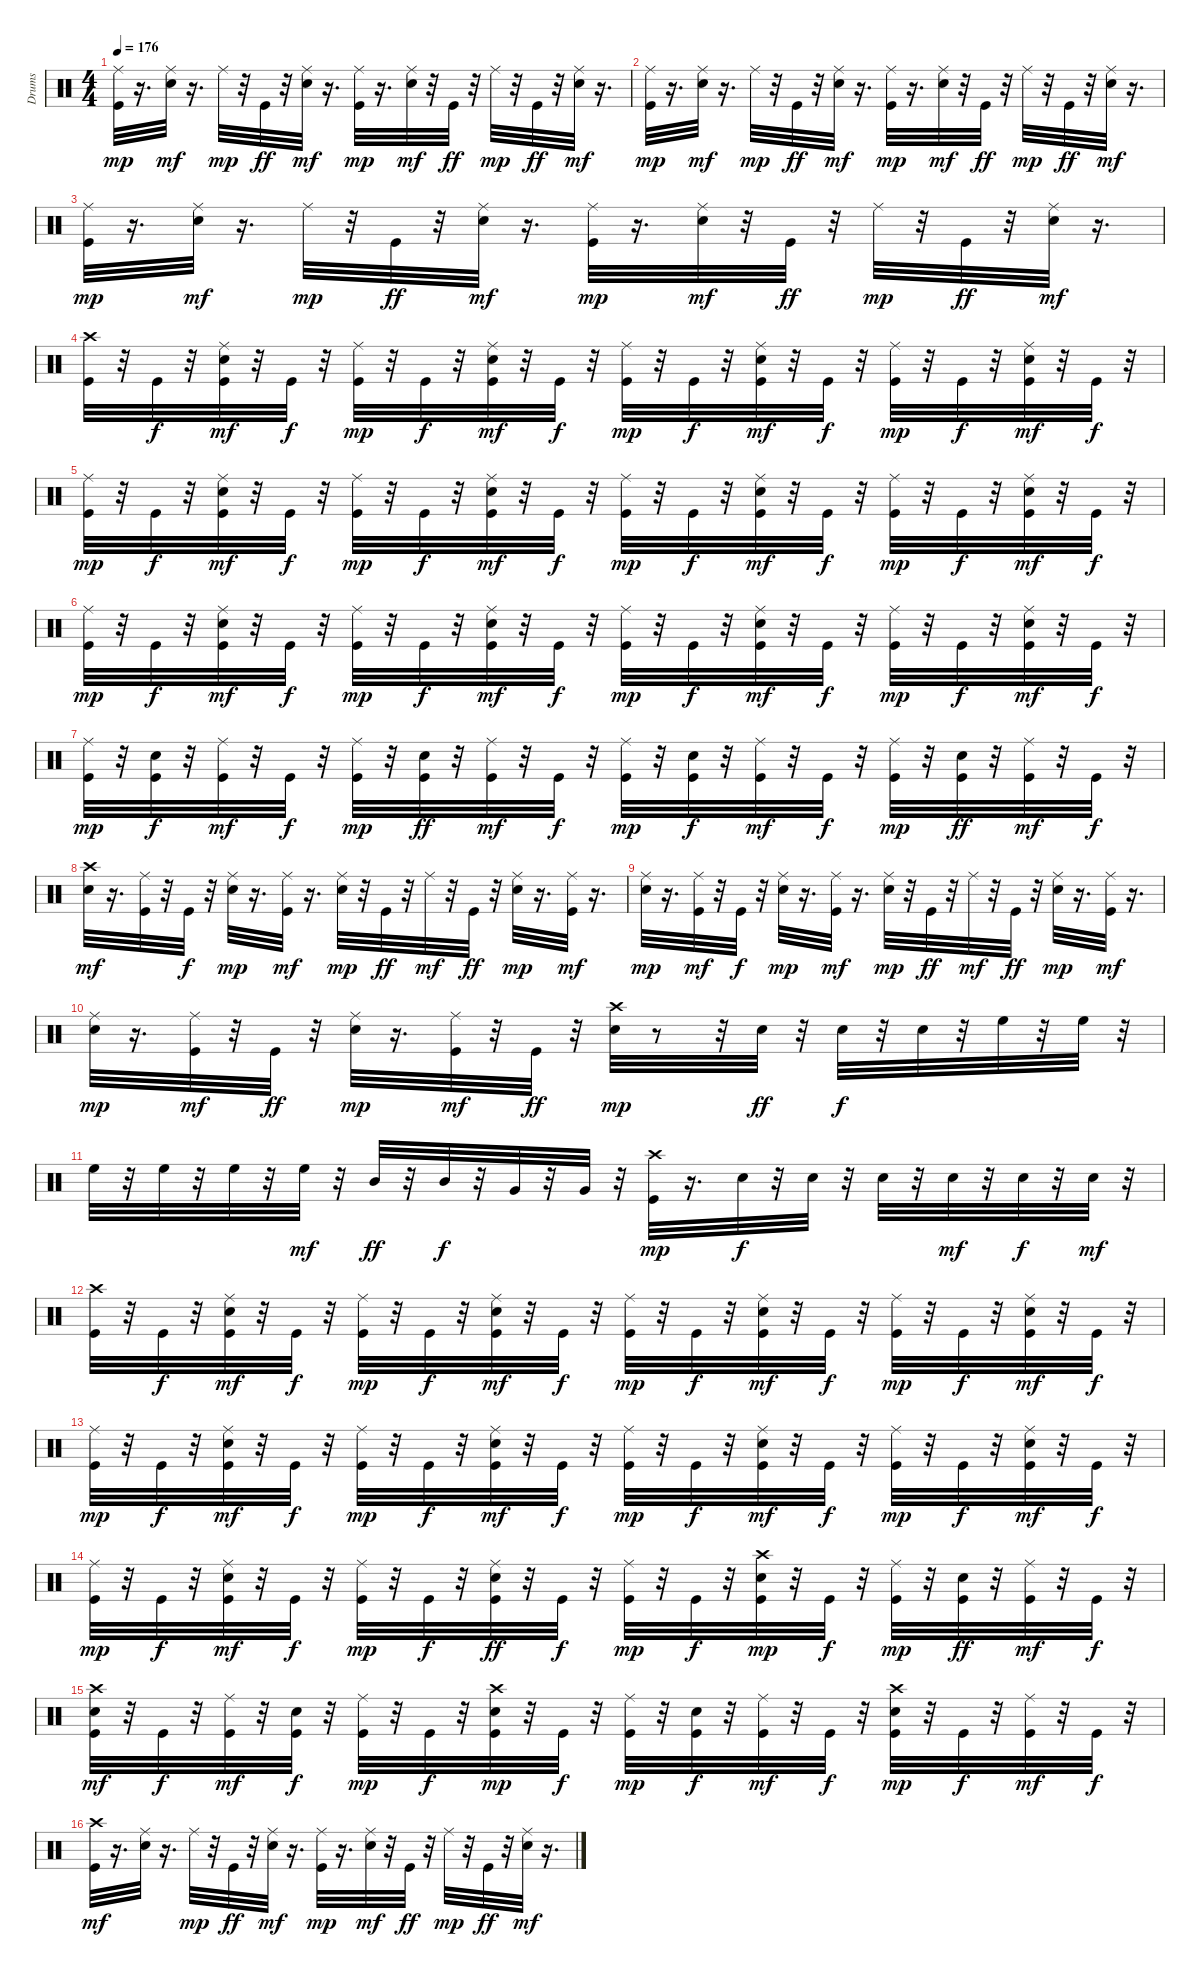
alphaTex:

\track ("Drums" "Drums") {instrument percussion}
\staff {score}
\articulation defaults
\ts (4 4)
\tempo 176
\clef neutral
\ks c
("Kick (hit)" "Ride (middle)").32{dy mp} r.16{d} ("Snare (hit) 2" "Ride (middle)").32{dy mf} r.16{d} "Ride (middle)".32{dy mp} r.32 "Kick (hit)".32{dy ff} r.32 ("Snare (hit) 2" "Ride (middle)").32{dy mf} r.16{d} ("Kick (hit)" "Ride (middle)").32{dy mp} r.16{d} ("Snare (hit) 2" "Ride (middle)").32{dy mf} r.32 "Kick (hit)".32{dy ff} r.32 "Ride (middle)".32{dy mp} r.32 "Kick (hit)".32{dy ff} r.32 ("Snare (hit) 2" "Ride (middle)").32{dy mf} r.16{d} |
("Kick (hit)" "Ride (middle)").32{dy mp} r.16{d} ("Snare (hit) 2" "Ride (middle)").32{dy mf} r.16{d} "Ride (middle)".32{dy mp} r.32 "Kick (hit)".32{dy ff} r.32 ("Snare (hit) 2" "Ride (middle)").32{dy mf} r.16{d} ("Kick (hit)" "Ride (middle)").32{dy mp} r.16{d} ("Snare (hit) 2" "Ride (middle)").32{dy mf} r.32 "Kick (hit)".32{dy ff} r.32 "Ride (middle)".32{dy mp} r.32 "Kick (hit)".32{dy ff} r.32 ("Snare (hit) 2" "Ride (middle)").32{dy mf} r.16{d} |
("Kick (hit)" "Ride (middle)").32{dy mp} r.16{d} ("Snare (hit) 2" "Ride (middle)").32{dy mf} r.16{d} "Ride (middle)".32{dy mp} r.32 "Kick (hit)".32{dy ff} r.32 ("Snare (hit) 2" "Ride (middle)").32{dy mf} r.16{d} ("Kick (hit)" "Ride (middle)").32{dy mp} r.16{d} ("Snare (hit) 2" "Ride (middle)").32{dy mf} r.32 "Kick (hit)".32{dy ff} r.32 "Ride (middle)".32{dy mp} r.32 "Kick (hit)".32{dy ff} r.32 ("Snare (hit) 2" "Ride (middle)").32{dy mf} r.16{d} |
("Kick (hit)" "Crash high (hit)").32 r.32 "Kick (hit)".32{dy f} r.32 ("Kick (hit)" "Snare (hit) 2" "Ride (middle)").32{dy mf} r.32 "Kick (hit)".32{dy f} r.32 ("Kick (hit)" "Ride (middle)").32{dy mp} r.32 "Kick (hit)".32{dy f} r.32 ("Kick (hit)" "Snare (hit) 2" "Ride (middle)").32{dy mf} r.32 "Kick (hit)".32{dy f} r.32 ("Kick (hit)" "Ride (middle)").32{dy mp} r.32 "Kick (hit)".32{dy f} r.32 ("Kick (hit)" "Snare (hit) 2" "Ride (middle)").32{dy mf} r.32 "Kick (hit)".32{dy f} r.32 ("Kick (hit)" "Ride (middle)").32{dy mp} r.32 "Kick (hit)".32{dy f} r.32 ("Kick (hit)" "Snare (hit) 2" "Ride (middle)").32{dy mf} r.32 "Kick (hit)".32{dy f} r.32 |
("Kick (hit)" "Ride (middle)").32{dy mp} r.32 "Kick (hit)".32{dy f} r.32 ("Kick (hit)" "Snare (hit) 2" "Ride (middle)").32{dy mf} r.32 "Kick (hit)".32{dy f} r.32 ("Kick (hit)" "Ride (middle)").32{dy mp} r.32 "Kick (hit)".32{dy f} r.32 ("Kick (hit)" "Snare (hit) 2" "Ride (middle)").32{dy mf} r.32 "Kick (hit)".32{dy f} r.32 ("Kick (hit)" "Ride (middle)").32{dy mp} r.32 "Kick (hit)".32{dy f} r.32 ("Kick (hit)" "Snare (hit) 2" "Ride (middle)").32{dy mf} r.32 "Kick (hit)".32{dy f} r.32 ("Kick (hit)" "Ride (middle)").32{dy mp} r.32 "Kick (hit)".32{dy f} r.32 ("Kick (hit)" "Snare (hit) 2" "Ride (middle)").32{dy mf} r.32 "Kick (hit)".32{dy f} r.32 |
("Kick (hit)" "Ride (middle)").32{dy mp} r.32 "Kick (hit)".32{dy f} r.32 ("Kick (hit)" "Snare (hit) 2" "Ride (middle)").32{dy mf} r.32 "Kick (hit)".32{dy f} r.32 ("Kick (hit)" "Ride (middle)").32{dy mp} r.32 "Kick (hit)".32{dy f} r.32 ("Kick (hit)" "Snare (hit) 2" "Ride (middle)").32{dy mf} r.32 "Kick (hit)".32{dy f} r.32 ("Kick (hit)" "Ride (middle)").32{dy mp} r.32 "Kick (hit)".32{dy f} r.32 ("Kick (hit)" "Snare (hit) 2" "Ride (middle)").32{dy mf} r.32 "Kick (hit)".32{dy f} r.32 ("Kick (hit)" "Ride (middle)").32{dy mp} r.32 "Kick (hit)".32{dy f} r.32 ("Kick (hit)" "Snare (hit) 2" "Ride (middle)").32{dy mf} r.32 "Kick (hit)".32{dy f} r.32 |
("Kick (hit)" "Ride (middle)").32{dy mp} r.32 ("Kick (hit)" "Snare (hit) 2").32{dy f} r.32 ("Kick (hit)" "Ride (middle)").32{dy mf} r.32 "Kick (hit)".32{dy f} r.32 ("Kick (hit)" "Ride (middle)").32{dy mp} r.32 ("Kick (hit)" "Snare (hit) 2").32{dy ff} r.32 ("Kick (hit)" "Ride (middle)").32{dy mf} r.32 "Kick (hit)".32{dy f} r.32 ("Kick (hit)" "Ride (middle)").32{dy mp} r.32 ("Kick (hit)" "Snare (hit) 2").32{dy f} r.32 ("Kick (hit)" "Ride (middle)").32{dy mf} r.32 "Kick (hit)".32{dy f} r.32 ("Kick (hit)" "Ride (middle)").32{dy mp} r.32 ("Kick (hit)" "Snare (hit) 2").32{dy ff} r.32 ("Kick (hit)" "Ride (middle)").32{dy mf} r.32 "Kick (hit)".32{dy f} r.32 |
("Snare (hit) 2" "Crash high (hit)").32{dy mf} r.16{d} ("Kick (hit)" "Ride (middle)").32 r.32 "Kick (hit)".32{dy f} r.32 ("Snare (hit) 2" "Ride (middle)").32{dy mp} r.16{d} ("Kick (hit)" "Ride (middle)").32{dy mf} r.16{d} ("Snare (hit) 2" "Ride (middle)").32{dy mp} r.32 "Kick (hit)".32{dy ff} r.32 "Ride (middle)".32{dy mf} r.32 "Kick (hit)".32{dy ff} r.32 ("Snare (hit) 2" "Ride (middle)").32{dy mp} r.16{d} ("Kick (hit)" "Ride (middle)").32{dy mf} r.16{d} |
("Snare (hit) 2" "Ride (middle)").32{dy mp} r.16{d} ("Kick (hit)" "Ride (middle)").32{dy mf} r.32 "Kick (hit)".32{dy f} r.32 ("Snare (hit) 2" "Ride (middle)").32{dy mp} r.16{d} ("Kick (hit)" "Ride (middle)").32{dy mf} r.16{d} ("Snare (hit) 2" "Ride (middle)").32{dy mp} r.32 "Kick (hit)".32{dy ff} r.32 "Ride (middle)".32{dy mf} r.32 "Kick (hit)".32{dy ff} r.32 ("Snare (hit) 2" "Ride (middle)").32{dy mp} r.16{d} ("Kick (hit)" "Ride (middle)").32{dy mf} r.16{d} |
("Snare (hit) 2" "Ride (middle)").32{dy mp} r.16{d} ("Kick (hit)" "Ride (middle)").32{dy mf} r.32 "Kick (hit)".32{dy ff} r.32 ("Snare (hit) 2" "Ride (middle)").32{dy mp} r.16{d} ("Kick (hit)" "Ride (middle)").32{dy mf} r.32 "Kick (hit)".32{dy ff} r.32 ("Snare (hit) 2" "Crash high (hit)").32{dy mp} r.8 r.32 "Snare (hit) 2".32{dy ff} r.32 "Snare (hit) 2".32{dy f} r.32 "Snare (hit) 2".32 r.32 "High Floor Tom (hit)".32 r.32 "High Floor Tom (hit)".32 r.32 |
"High Floor Tom (hit)".32 r.32 "High Floor Tom (hit)".32 r.32 "High Floor Tom (hit)".32 r.32 "High Floor Tom (hit)".32{dy mf} r.32 "Mid Tom (hit)".32{dy ff} r.32 "Mid Tom (hit)".32{dy f} r.32 "Very Low Tom (hit)".32 r.32 "Very Low Tom (hit)".32 r.32 ("Kick (hit)" "Crash high (hit)").32{dy mp} r.16{d} "Snare (hit) 2".32{dy f} r.32 "Snare (hit) 2".32 r.32 "Snare (hit) 2".32 r.32 "Snare (hit) 2".32{dy mf} r.32 "Snare (hit) 2".32{dy f} r.32 "Snare (hit) 2".32{dy mf} r.32 |
("Kick (hit)" "Crash high (hit)").32 r.32 "Kick (hit)".32{dy f} r.32 ("Kick (hit)" "Snare (hit) 2" "Ride (middle)").32{dy mf} r.32 "Kick (hit)".32{dy f} r.32 ("Kick (hit)" "Ride (middle)").32{dy mp} r.32 "Kick (hit)".32{dy f} r.32 ("Kick (hit)" "Snare (hit) 2" "Ride (middle)").32{dy mf} r.32 "Kick (hit)".32{dy f} r.32 ("Kick (hit)" "Ride (middle)").32{dy mp} r.32 "Kick (hit)".32{dy f} r.32 ("Kick (hit)" "Snare (hit) 2" "Ride (middle)").32{dy mf} r.32 "Kick (hit)".32{dy f} r.32 ("Kick (hit)" "Ride (middle)").32{dy mp} r.32 "Kick (hit)".32{dy f} r.32 ("Kick (hit)" "Snare (hit) 2" "Ride (middle)").32{dy mf} r.32 "Kick (hit)".32{dy f} r.32 |
("Kick (hit)" "Ride (middle)").32{dy mp} r.32 "Kick (hit)".32{dy f} r.32 ("Kick (hit)" "Snare (hit) 2" "Ride (middle)").32{dy mf} r.32 "Kick (hit)".32{dy f} r.32 ("Kick (hit)" "Ride (middle)").32{dy mp} r.32 "Kick (hit)".32{dy f} r.32 ("Kick (hit)" "Snare (hit) 2" "Ride (middle)").32{dy mf} r.32 "Kick (hit)".32{dy f} r.32 ("Kick (hit)" "Ride (middle)").32{dy mp} r.32 "Kick (hit)".32{dy f} r.32 ("Kick (hit)" "Snare (hit) 2" "Ride (middle)").32{dy mf} r.32 "Kick (hit)".32{dy f} r.32 ("Kick (hit)" "Ride (middle)").32{dy mp} r.32 "Kick (hit)".32{dy f} r.32 ("Kick (hit)" "Snare (hit) 2" "Ride (middle)").32{dy mf} r.32 "Kick (hit)".32{dy f} r.32 |
("Kick (hit)" "Ride (middle)").32{dy mp} r.32 "Kick (hit)".32{dy f} r.32 ("Kick (hit)" "Snare (hit) 2" "Ride (middle)").32{dy mf} r.32 "Kick (hit)".32{dy f} r.32 ("Kick (hit)" "Ride (middle)").32{dy mp} r.32 "Kick (hit)".32{dy f} r.32 ("Kick (hit)" "Snare (hit) 2" "Ride (middle)").32{dy ff} r.32 "Kick (hit)".32{dy f} r.32 ("Kick (hit)" "Ride (middle)").32{dy mp} r.32 "Kick (hit)".32{dy f} r.32 ("Kick (hit)" "Snare (hit) 2" "Crash high (hit)").32{dy mp} r.32 "Kick (hit)".32{dy f} r.32 ("Kick (hit)" "Ride (middle)").32{dy mp} r.32 ("Snare (hit) 2" "Kick (hit)").32{dy ff} r.32 ("Kick (hit)" "Ride (middle)").32{dy mf} r.32 "Kick (hit)".32{dy f} r.32 |
("Kick (hit)" "Snare (hit) 2" "Crash high (hit)").32{dy mf} r.32 "Kick (hit)".32{dy f} r.32 ("Kick (hit)" "Ride (middle)").32{dy mf} r.32 ("Kick (hit)" "Snare (hit) 2").32{dy f} r.32 ("Kick (hit)" "Ride (middle)").32{dy mp} r.32 "Kick (hit)".32{dy f} r.32 ("Kick (hit)" "Snare (hit) 2" "Crash high (hit)").32{dy mp} r.32 "Kick (hit)".32{dy f} r.32 ("Kick (hit)" "Ride (middle)").32{dy mp} r.32 ("Kick (hit)" "Snare (hit) 2").32{dy f} r.32 ("Kick (hit)" "Ride (middle)").32{dy mf} r.32 "Kick (hit)".32{dy f} r.32 ("Kick (hit)" "Snare (hit) 2" "Crash high (hit)").32{dy mp} r.32 "Kick (hit)".32{dy f} r.32 ("Kick (hit)" "Ride (middle)").32{dy mf} r.32 "Kick (hit)".32{dy f} r.32 |
("Kick (hit)" "Crash high (hit)").32{dy mf} r.16{d} ("Snare (hit) 2" "Ride (middle)").32 r.16{d} "Ride (middle)".32{dy mp} r.32 "Kick (hit)".32{dy ff} r.32 ("Snare (hit) 2" "Ride (middle)").32{dy mf} r.16{d} ("Kick (hit)" "Ride (middle)").32{dy mp} r.16{d} ("Snare (hit) 2" "Ride (middle)").32{dy mf} r.32 "Kick (hit)".32{dy ff} r.32 "Ride (middle)".32{dy mp} r.32 "Kick (hit)".32{dy ff} r.32 ("Snare (hit) 2" "Ride (middle)").32{dy mf} r.16{d}
